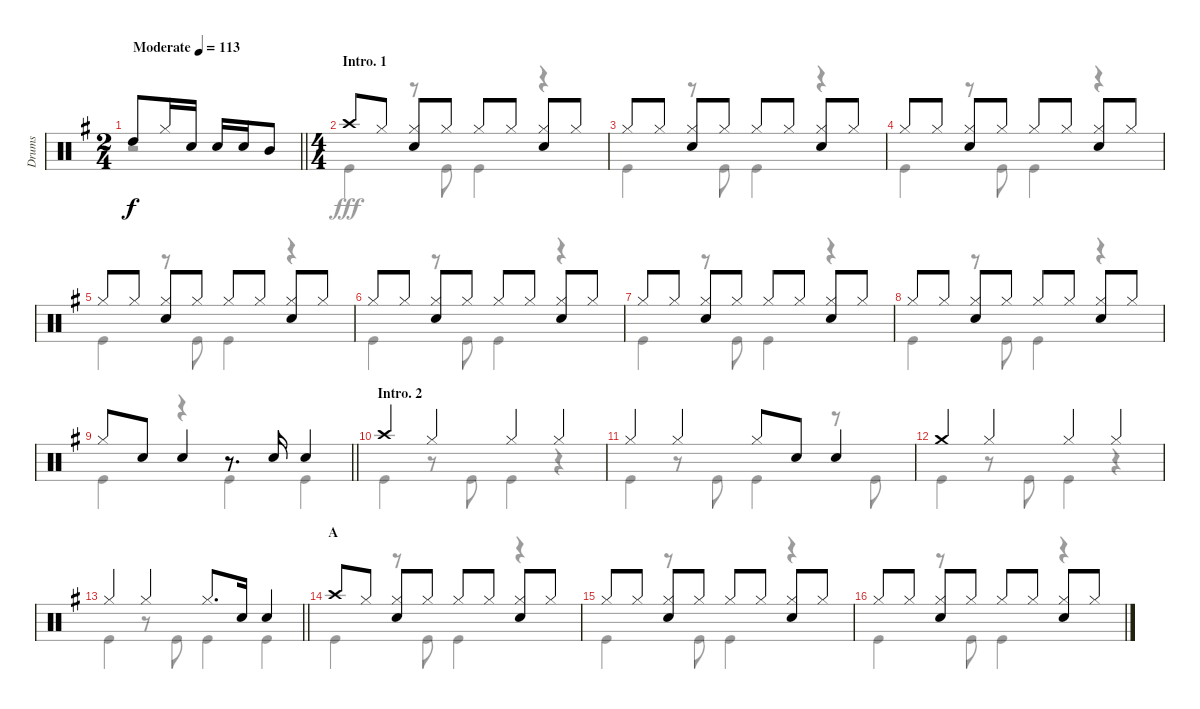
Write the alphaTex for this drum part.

\track ("Drums" "Drums") {instrument percussion}
\staff {score}
\articulation defaults
\voice
\ts (2 4)
\tempo (113 "Moderate")
\clef neutral
\barLineRight lightlight
\ks g "High Tom (hit)".8{dy f} "Hi-Hat (closed)".16 "Snare (hit) 2".16 "Snare (hit) 2".16 "Snare (hit) 2".16 "Mid Tom (hit)".8
|
\ts (4 4)
\section ("" "Intro. 1")
"Crash high (hit)".8 "Hi-Hat (closed)".8 ("Hi-Hat (closed)" "Snare (hit) 2").8 "Hi-Hat (closed)".8 "Hi-Hat (closed)".8 "Hi-Hat (closed)".8 ("Hi-Hat (closed)" "Snare (hit) 2").8 "Hi-Hat (closed)".8 |
"Hi-Hat (closed)".8 "Hi-Hat (closed)".8 ("Hi-Hat (closed)" "Snare (hit) 2").8 "Hi-Hat (closed)".8 "Hi-Hat (closed)".8 "Hi-Hat (closed)".8 ("Hi-Hat (closed)" "Snare (hit) 2").8 "Hi-Hat (closed)".8 |
"Hi-Hat (closed)".8 "Hi-Hat (closed)".8 ("Hi-Hat (closed)" "Snare (hit) 2").8 "Hi-Hat (closed)".8 "Hi-Hat (closed)".8 "Hi-Hat (closed)".8 ("Hi-Hat (closed)" "Snare (hit) 2").8 "Hi-Hat (closed)".8 |
"Hi-Hat (closed)".8 "Hi-Hat (closed)".8 ("Hi-Hat (closed)" "Snare (hit) 2").8 "Hi-Hat (closed)".8 "Hi-Hat (closed)".8 "Hi-Hat (closed)".8 ("Hi-Hat (closed)" "Snare (hit) 2").8 "Hi-Hat (closed)".8 |
"Hi-Hat (closed)".8 "Hi-Hat (closed)".8 ("Hi-Hat (closed)" "Snare (hit) 2").8 "Hi-Hat (closed)".8 "Hi-Hat (closed)".8 "Hi-Hat (closed)".8 ("Hi-Hat (closed)" "Snare (hit) 2").8 "Hi-Hat (closed)".8 |
"Hi-Hat (closed)".8 "Hi-Hat (closed)".8 ("Hi-Hat (closed)" "Snare (hit) 2").8 "Hi-Hat (closed)".8 "Hi-Hat (closed)".8 "Hi-Hat (closed)".8 ("Hi-Hat (closed)" "Snare (hit) 2").8 "Hi-Hat (closed)".8 |
"Hi-Hat (closed)".8 "Hi-Hat (closed)".8 ("Hi-Hat (closed)" "Snare (hit) 2").8 "Hi-Hat (closed)".8 "Hi-Hat (closed)".8 "Hi-Hat (closed)".8 ("Hi-Hat (closed)" "Snare (hit) 2").8 "Hi-Hat (closed)".8 |
\barLineRight lightlight "Hi-Hat (closed)".8 "Snare (hit) 2".8 "Snare (hit) 2".4
r.8{d} "Snare (hit) 2".16 "Snare (hit) 2".4 |
\section ("" "Intro. 2")
"Crash high (hit)".4 "Hi-Hat (closed)".4 "Hi-Hat (closed)".4 "Hi-Hat (closed)".4 |
"Hi-Hat (closed)".4 "Hi-Hat (closed)".4 "Hi-Hat (closed)".8 "Snare (hit) 2".8 "Snare (hit) 2".4 |
"Crash medium (hit)".4 "Hi-Hat (closed)".4 "Hi-Hat (closed)".4 "Hi-Hat (closed)".4 |
\barLineRight lightlight "Hi-Hat (closed)".4 "Hi-Hat (closed)".4 "Hi-Hat (closed)".8{d} "Snare (hit) 2".16 "Snare (hit) 2".4
|
\section ("" "A")
"Crash high (hit)".8 "Hi-Hat (closed)".8 ("Hi-Hat (closed)" "Snare (hit) 2").8 "Hi-Hat (closed)".8 "Hi-Hat (closed)".8 "Hi-Hat (closed)".8 ("Hi-Hat (closed)" "Snare (hit) 2").8 "Hi-Hat (closed)".8 |
"Hi-Hat (closed)".8 "Hi-Hat (closed)".8 ("Hi-Hat (closed)" "Snare (hit) 2").8 "Hi-Hat (closed)".8 "Hi-Hat (closed)".8 "Hi-Hat (closed)".8 ("Hi-Hat (closed)" "Snare (hit) 2").8 "Hi-Hat (closed)".8 |
"Hi-Hat (closed)".8 "Hi-Hat (closed)".8 ("Hi-Hat (closed)" "Snare (hit) 2").8 "Hi-Hat (closed)".8 "Hi-Hat (closed)".8 "Hi-Hat (closed)".8 ("Hi-Hat (closed)" "Snare (hit) 2").8 "Hi-Hat (closed)".8
\voice
\clef neutral
\ottava regular
\simile none
\barLineRight lightlight
\ks g
r.2{dy fff} |
"Kick (hit)".4 r.8 "Kick (hit)".8 "Kick (hit)".4 r.4 |
"Kick (hit)".4 r.8 "Kick (hit)".8 "Kick (hit)".4 r.4 |
"Kick (hit)".4 r.8 "Kick (hit)".8 "Kick (hit)".4 r.4 |
"Kick (hit)".4 r.8 "Kick (hit)".8 "Kick (hit)".4 r.4 |
"Kick (hit)".4 r.8 "Kick (hit)".8 "Kick (hit)".4 r.4 |
"Kick (hit)".4 r.8 "Kick (hit)".8 "Kick (hit)".4 r.4 |
"Kick (hit)".4 r.8 "Kick (hit)".8 "Kick (hit)".4 r.4 |
\barLineRight lightlight "Kick (hit)".4
r.4 "Kick (hit)".4 "Kick (hit)".4 |
"Kick (hit)".4 r.8 "Kick (hit)".8 "Kick (hit)".4 r.4 |
"Kick (hit)".4 r.8 "Kick (hit)".8 "Kick (hit)".4 r.8 "Kick (hit)".8 |
"Kick (hit)".4 r.8 "Kick (hit)".8 "Kick (hit)".4 r.4 |
\barLineRight lightlight "Kick (hit)".4
r.8 "Kick (hit)".8 "Kick (hit)".4 "Kick (hit)".4 |
"Kick (hit)".4 r.8 "Kick (hit)".8 "Kick (hit)".4 r.4 |
"Kick (hit)".4 r.8 "Kick (hit)".8 "Kick (hit)".4 r.4 |
"Kick (hit)".4 r.8 "Kick (hit)".8 "Kick (hit)".4 r.4
